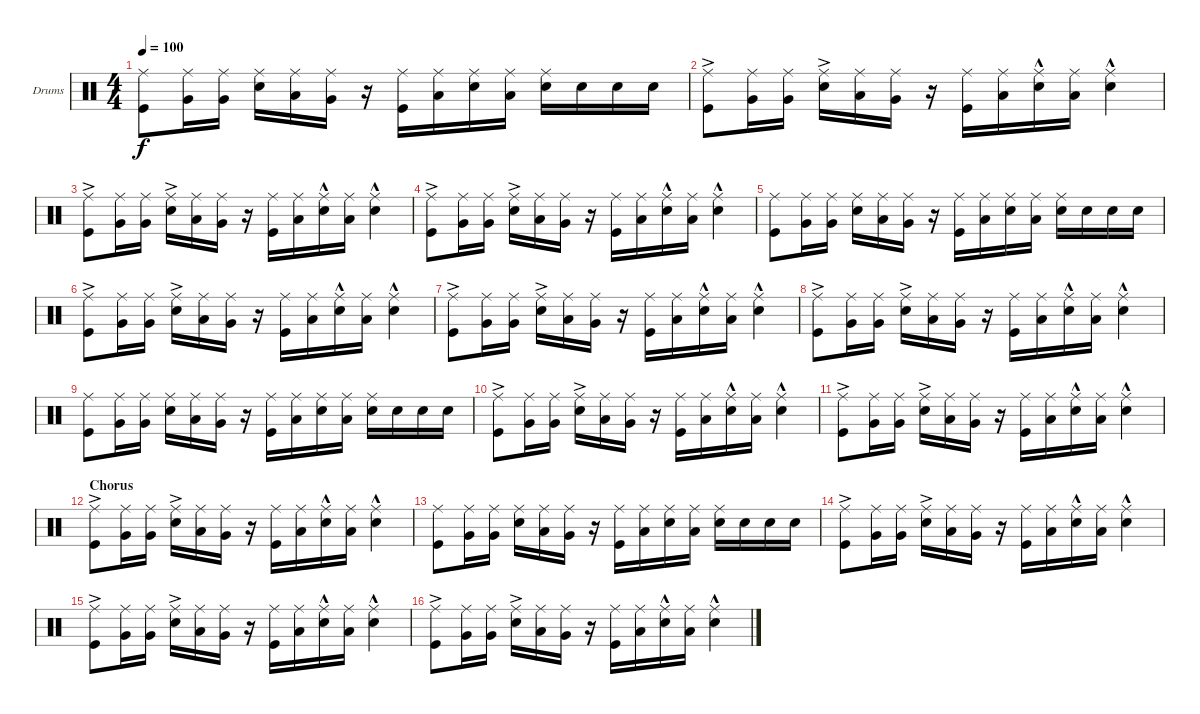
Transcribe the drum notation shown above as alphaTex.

\defaultSystemsLayout 4
\bracketExtendMode groupsimilarinstruments
\firstSystemTrackNameOrientation horizontal
\otherSystemsTrackNameOrientation horizontal
\track ("Dominic Howard" "Drums") {instrument percussion}
\staff {score}
\articulation defaults
\ts (4 4)
\tempo 100
\clef neutral
\ks c
("Kick (hit)" "Ride (middle)").8{dy f} ("Very Low Tom (hit)" "Ride (middle)").16 ("Very Low Tom (hit)" "Ride (middle)").16 ("Snare (hit) 2" "Ride (middle)").16 ("Low Tom (hit)" "Ride (middle)").16 ("Very Low Tom (hit)" "Ride (middle)").16 r.16 ("Kick (hit)" "Ride (middle)").16 ("Low Tom (hit)" "Ride (middle)").16 ("Snare (hit) 2" "Ride (middle)").16 ("Low Tom (hit)" "Ride (middle)").16 ("Snare (hit) 2" "Ride (middle)").16 "Snare (hit) 2".16 "Snare (hit) 2".16 "Snare (hit) 2".16 |
("Kick (hit)"{ac} "Ride (middle)").8 ("Very Low Tom (hit)" "Ride (middle)").16 ("Very Low Tom (hit)" "Ride (middle)").16 ("Snare (hit) 2"{ac} "Ride (middle)").16 ("Low Tom (hit)" "Ride (middle)").16 ("Very Low Tom (hit)" "Ride (middle)").16 r.16 ("Kick (hit)" "Ride (middle)").16 ("Low Tom (hit)" "Ride (middle)").16 ("Snare (hit) 2"{hac} "Ride (middle)").16 ("Low Tom (hit)" "Ride (middle)").16 ("Snare (hit) 2"{hac} "Ride (middle)").4 |
("Kick (hit)"{ac} "Ride (middle)").8 ("Very Low Tom (hit)" "Ride (middle)").16 ("Very Low Tom (hit)" "Ride (middle)").16 ("Snare (hit) 2"{ac} "Ride (middle)").16 ("Low Tom (hit)" "Ride (middle)").16 ("Very Low Tom (hit)" "Ride (middle)").16 r.16 ("Kick (hit)" "Ride (middle)").16 ("Low Tom (hit)" "Ride (middle)").16 ("Snare (hit) 2"{hac} "Ride (middle)").16 ("Low Tom (hit)" "Ride (middle)").16 ("Snare (hit) 2"{hac} "Ride (middle)").4 |
("Kick (hit)"{ac} "Ride (middle)").8 ("Very Low Tom (hit)" "Ride (middle)").16 ("Very Low Tom (hit)" "Ride (middle)").16 ("Snare (hit) 2"{ac} "Ride (middle)").16 ("Low Tom (hit)" "Ride (middle)").16 ("Very Low Tom (hit)" "Ride (middle)").16 r.16 ("Kick (hit)" "Ride (middle)").16 ("Low Tom (hit)" "Ride (middle)").16 ("Snare (hit) 2"{hac} "Ride (middle)").16 ("Low Tom (hit)" "Ride (middle)").16 ("Snare (hit) 2"{hac} "Ride (middle)").4 |
("Kick (hit)" "Ride (middle)").8 ("Very Low Tom (hit)" "Ride (middle)").16 ("Very Low Tom (hit)" "Ride (middle)").16 ("Snare (hit) 2" "Ride (middle)").16 ("Low Tom (hit)" "Ride (middle)").16 ("Very Low Tom (hit)" "Ride (middle)").16 r.16 ("Kick (hit)" "Ride (middle)").16 ("Low Tom (hit)" "Ride (middle)").16 ("Snare (hit) 2" "Ride (middle)").16 ("Low Tom (hit)" "Ride (middle)").16 ("Snare (hit) 2" "Ride (middle)").16 "Snare (hit) 2".16 "Snare (hit) 2".16 "Snare (hit) 2".16 |
("Kick (hit)"{ac} "Ride (middle)").8 ("Very Low Tom (hit)" "Ride (middle)").16 ("Very Low Tom (hit)" "Ride (middle)").16 ("Snare (hit) 2"{ac} "Ride (middle)").16 ("Low Tom (hit)" "Ride (middle)").16 ("Very Low Tom (hit)" "Ride (middle)").16 r.16 ("Kick (hit)" "Ride (middle)").16 ("Low Tom (hit)" "Ride (middle)").16 ("Snare (hit) 2"{hac} "Ride (middle)").16 ("Low Tom (hit)" "Ride (middle)").16 ("Snare (hit) 2"{hac} "Ride (middle)").4 |
("Kick (hit)"{ac} "Ride (middle)").8 ("Very Low Tom (hit)" "Ride (middle)").16 ("Very Low Tom (hit)" "Ride (middle)").16 ("Snare (hit) 2"{ac} "Ride (middle)").16 ("Low Tom (hit)" "Ride (middle)").16 ("Very Low Tom (hit)" "Ride (middle)").16 r.16 ("Kick (hit)" "Ride (middle)").16 ("Low Tom (hit)" "Ride (middle)").16 ("Snare (hit) 2"{hac} "Ride (middle)").16 ("Low Tom (hit)" "Ride (middle)").16 ("Snare (hit) 2"{hac} "Ride (middle)").4 |
("Kick (hit)"{ac} "Ride (middle)").8 ("Very Low Tom (hit)" "Ride (middle)").16 ("Very Low Tom (hit)" "Ride (middle)").16 ("Snare (hit) 2"{ac} "Ride (middle)").16 ("Low Tom (hit)" "Ride (middle)").16 ("Very Low Tom (hit)" "Ride (middle)").16 r.16 ("Kick (hit)" "Ride (middle)").16 ("Low Tom (hit)" "Ride (middle)").16 ("Snare (hit) 2"{hac} "Ride (middle)").16 ("Low Tom (hit)" "Ride (middle)").16 ("Snare (hit) 2"{hac} "Ride (middle)").4 |
("Kick (hit)" "Ride (middle)").8 ("Very Low Tom (hit)" "Ride (middle)").16 ("Very Low Tom (hit)" "Ride (middle)").16 ("Snare (hit) 2" "Ride (middle)").16 ("Low Tom (hit)" "Ride (middle)").16 ("Very Low Tom (hit)" "Ride (middle)").16 r.16 ("Kick (hit)" "Ride (middle)").16 ("Low Tom (hit)" "Ride (middle)").16 ("Snare (hit) 2" "Ride (middle)").16 ("Low Tom (hit)" "Ride (middle)").16 ("Snare (hit) 2" "Ride (middle)").16 "Snare (hit) 2".16 "Snare (hit) 2".16 "Snare (hit) 2".16 |
("Kick (hit)"{ac} "Ride (middle)").8 ("Very Low Tom (hit)" "Ride (middle)").16 ("Very Low Tom (hit)" "Ride (middle)").16 ("Snare (hit) 2"{ac} "Ride (middle)").16 ("Low Tom (hit)" "Ride (middle)").16 ("Very Low Tom (hit)" "Ride (middle)").16 r.16 ("Kick (hit)" "Ride (middle)").16 ("Low Tom (hit)" "Ride (middle)").16 ("Snare (hit) 2"{hac} "Ride (middle)").16 ("Low Tom (hit)" "Ride (middle)").16 ("Snare (hit) 2"{hac} "Ride (middle)").4 |
("Kick (hit)"{ac} "Ride (middle)").8 ("Very Low Tom (hit)" "Ride (middle)").16 ("Very Low Tom (hit)" "Ride (middle)").16 ("Snare (hit) 2"{ac} "Ride (middle)").16 ("Low Tom (hit)" "Ride (middle)").16 ("Very Low Tom (hit)" "Ride (middle)").16 r.16 ("Kick (hit)" "Ride (middle)").16 ("Low Tom (hit)" "Ride (middle)").16 ("Snare (hit) 2"{hac} "Ride (middle)").16 ("Low Tom (hit)" "Ride (middle)").16 ("Snare (hit) 2"{hac} "Ride (middle)").4 |
\section ("" "Chorus")
("Kick (hit)"{ac} "Ride (middle)").8 ("Very Low Tom (hit)" "Ride (middle)").16 ("Very Low Tom (hit)" "Ride (middle)").16 ("Snare (hit) 2"{ac} "Ride (middle)").16 ("Low Tom (hit)" "Ride (middle)").16 ("Very Low Tom (hit)" "Ride (middle)").16 r.16 ("Kick (hit)" "Ride (middle)").16 ("Low Tom (hit)" "Ride (middle)").16 ("Snare (hit) 2"{hac} "Ride (middle)").16 ("Low Tom (hit)" "Ride (middle)").16 ("Snare (hit) 2"{hac} "Ride (middle)").4 |
("Kick (hit)" "Ride (middle)").8 ("Very Low Tom (hit)" "Ride (middle)").16 ("Very Low Tom (hit)" "Ride (middle)").16 ("Snare (hit) 2" "Ride (middle)").16 ("Low Tom (hit)" "Ride (middle)").16 ("Very Low Tom (hit)" "Ride (middle)").16 r.16 ("Kick (hit)" "Ride (middle)").16 ("Low Tom (hit)" "Ride (middle)").16 ("Snare (hit) 2" "Ride (middle)").16 ("Low Tom (hit)" "Ride (middle)").16 ("Snare (hit) 2" "Ride (middle)").16 "Snare (hit) 2".16 "Snare (hit) 2".16 "Snare (hit) 2".16 |
("Kick (hit)"{ac} "Ride (middle)").8 ("Very Low Tom (hit)" "Ride (middle)").16 ("Very Low Tom (hit)" "Ride (middle)").16 ("Snare (hit) 2"{ac} "Ride (middle)").16 ("Low Tom (hit)" "Ride (middle)").16 ("Very Low Tom (hit)" "Ride (middle)").16 r.16 ("Kick (hit)" "Ride (middle)").16 ("Low Tom (hit)" "Ride (middle)").16 ("Snare (hit) 2"{hac} "Ride (middle)").16 ("Low Tom (hit)" "Ride (middle)").16 ("Snare (hit) 2"{hac} "Ride (middle)").4 |
("Kick (hit)"{ac} "Ride (middle)").8 ("Very Low Tom (hit)" "Ride (middle)").16 ("Very Low Tom (hit)" "Ride (middle)").16 ("Snare (hit) 2"{ac} "Ride (middle)").16 ("Low Tom (hit)" "Ride (middle)").16 ("Very Low Tom (hit)" "Ride (middle)").16 r.16 ("Kick (hit)" "Ride (middle)").16 ("Low Tom (hit)" "Ride (middle)").16 ("Snare (hit) 2"{hac} "Ride (middle)").16 ("Low Tom (hit)" "Ride (middle)").16 ("Snare (hit) 2"{hac} "Ride (middle)").4 |
("Kick (hit)"{ac} "Ride (middle)").8 ("Very Low Tom (hit)" "Ride (middle)").16 ("Very Low Tom (hit)" "Ride (middle)").16 ("Snare (hit) 2"{ac} "Ride (middle)").16 ("Low Tom (hit)" "Ride (middle)").16 ("Very Low Tom (hit)" "Ride (middle)").16 r.16 ("Kick (hit)" "Ride (middle)").16 ("Low Tom (hit)" "Ride (middle)").16 ("Snare (hit) 2"{hac} "Ride (middle)").16 ("Low Tom (hit)" "Ride (middle)").16 ("Snare (hit) 2"{hac} "Ride (middle)").4
